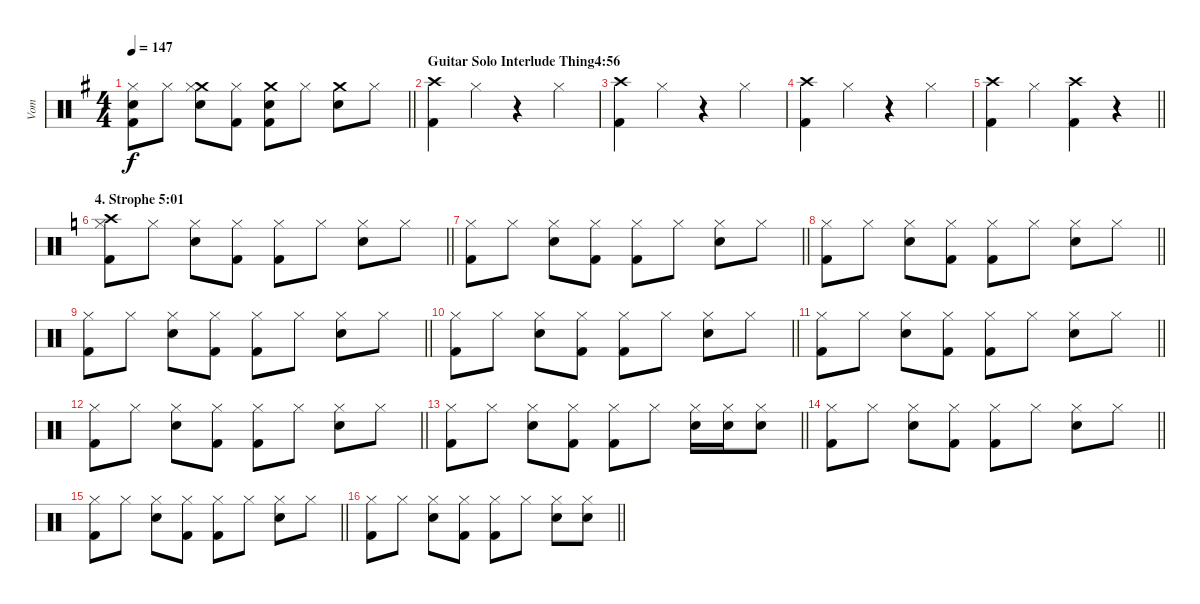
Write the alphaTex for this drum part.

\track ("Vom" "Vom") {instrument percussion}
\staff {score}
\articulation defaults
\ts (4 4)
\tempo 147
\clef neutral
\barLineRight lightlight
\ks g
("Hi-Hat (closed)" "Snare (hit) 2" "Kick (hit) 2").8{dy f} "Hi-Hat (closed)".8 ("Crash medium (hit)" "Hi-Hat (closed)" "Snare (hit) 2").8 ("Hi-Hat (closed)" "Kick (hit) 2").8 ("Crash medium (hit)" "Snare (hit) 2" "Kick (hit) 2").8 "Hi-Hat (closed)".8 ("Crash medium (hit)" "Snare (hit) 2").8 "Hi-Hat (closed)".8 |
\section ("" "Guitar Solo Interlude Thing4:56")
("Crash high (hit)" "Kick (hit) 2").4 "Hi-Hat (closed)".4 r.4 "Hi-Hat (closed)".4 |
("Crash high (hit)" "Kick (hit) 2").4 "Hi-Hat (closed)".4 r.4 "Hi-Hat (closed)".4 |
("Crash high (hit)" "Kick (hit) 2").4 "Hi-Hat (closed)".4 r.4 "Hi-Hat (closed)".4 |
\barLineRight lightlight
("Crash high (hit)" "Kick (hit) 2").4 "Hi-Hat (closed)".4 ("Crash high (hit)" "Kick (hit) 2").4 r.4 |
\section ("" "4. Strophe 5:01")
\barLineRight lightlight
\ks c
("Crash high (hit)" "Hi-Hat (closed)" "Kick (hit) 2").8 "Hi-Hat (closed)".8 ("Hi-Hat (closed)" "Snare (hit) 2").8 ("Hi-Hat (closed)" "Kick (hit) 2").8 ("Hi-Hat (closed)" "Kick (hit) 2").8 "Hi-Hat (closed)".8 ("Hi-Hat (closed)" "Snare (hit) 2").8 "Hi-Hat (closed)".8 |
\barLineRight lightlight
("Hi-Hat (closed)" "Kick (hit) 2").8 "Hi-Hat (closed)".8 ("Hi-Hat (closed)" "Snare (hit) 2").8 ("Hi-Hat (closed)" "Kick (hit) 2").8 ("Hi-Hat (closed)" "Kick (hit) 2").8 "Hi-Hat (closed)".8 ("Hi-Hat (closed)" "Snare (hit) 2").8 "Hi-Hat (closed)".8 |
\barLineRight lightlight
("Hi-Hat (closed)" "Kick (hit) 2").8 "Hi-Hat (closed)".8 ("Hi-Hat (closed)" "Snare (hit) 2").8 ("Hi-Hat (closed)" "Kick (hit) 2").8 ("Hi-Hat (closed)" "Kick (hit) 2").8 "Hi-Hat (closed)".8 ("Hi-Hat (closed)" "Snare (hit) 2").8 "Hi-Hat (closed)".8 |
\barLineRight lightlight
("Hi-Hat (closed)" "Kick (hit) 2").8 "Hi-Hat (closed)".8 ("Hi-Hat (closed)" "Snare (hit) 2").8 ("Hi-Hat (closed)" "Kick (hit) 2").8 ("Hi-Hat (closed)" "Kick (hit) 2").8 "Hi-Hat (closed)".8 ("Hi-Hat (closed)" "Snare (hit) 2").8 "Hi-Hat (closed)".8 |
\barLineRight lightlight
("Hi-Hat (closed)" "Kick (hit) 2").8 "Hi-Hat (closed)".8 ("Hi-Hat (closed)" "Snare (hit) 2").8 ("Hi-Hat (closed)" "Kick (hit) 2").8 ("Hi-Hat (closed)" "Kick (hit) 2").8 "Hi-Hat (closed)".8 ("Hi-Hat (closed)" "Snare (hit) 2").8 "Hi-Hat (closed)".8 |
\barLineRight lightlight
("Hi-Hat (closed)" "Kick (hit) 2").8 "Hi-Hat (closed)".8 ("Hi-Hat (closed)" "Snare (hit) 2").8 ("Hi-Hat (closed)" "Kick (hit) 2").8 ("Hi-Hat (closed)" "Kick (hit) 2").8 "Hi-Hat (closed)".8 ("Hi-Hat (closed)" "Snare (hit) 2").8 "Hi-Hat (closed)".8 |
\barLineRight lightlight
("Hi-Hat (closed)" "Kick (hit) 2").8 "Hi-Hat (closed)".8 ("Hi-Hat (closed)" "Snare (hit) 2").8 ("Hi-Hat (closed)" "Kick (hit) 2").8 ("Hi-Hat (closed)" "Kick (hit) 2").8 "Hi-Hat (closed)".8 ("Hi-Hat (closed)" "Snare (hit) 2").8 "Hi-Hat (closed)".8 |
\barLineRight lightlight
("Hi-Hat (closed)" "Kick (hit) 2").8 "Hi-Hat (closed)".8 ("Hi-Hat (closed)" "Snare (hit) 2").8 ("Hi-Hat (closed)" "Kick (hit) 2").8 ("Hi-Hat (closed)" "Kick (hit) 2").8 "Hi-Hat (closed)".8 ("Hi-Hat (closed)" "Snare (hit) 2").16 ("Hi-Hat (closed)" "Snare (hit) 2").16 ("Hi-Hat (closed)" "Snare (hit) 2").8 |
\barLineRight lightlight
("Hi-Hat (closed)" "Kick (hit) 2").8 "Hi-Hat (closed)".8 ("Hi-Hat (closed)" "Snare (hit) 2").8 ("Hi-Hat (closed)" "Kick (hit) 2").8 ("Hi-Hat (closed)" "Kick (hit) 2").8 "Hi-Hat (closed)".8 ("Hi-Hat (closed)" "Snare (hit) 2").8 "Hi-Hat (closed)".8 |
\barLineRight lightlight
("Hi-Hat (closed)" "Kick (hit) 2").8 "Hi-Hat (closed)".8 ("Hi-Hat (closed)" "Snare (hit) 2").8 ("Hi-Hat (closed)" "Kick (hit) 2").8 ("Hi-Hat (closed)" "Kick (hit) 2").8 "Hi-Hat (closed)".8 ("Hi-Hat (closed)" "Snare (hit) 2").8 "Hi-Hat (closed)".8 |
\barLineRight lightlight
("Hi-Hat (closed)" "Kick (hit) 2").8 "Hi-Hat (closed)".8 ("Hi-Hat (closed)" "Snare (hit) 2").8 ("Hi-Hat (closed)" "Kick (hit) 2").8 ("Hi-Hat (closed)" "Kick (hit) 2").8 "Hi-Hat (closed)".8 ("Hi-Hat (closed)" "Snare (hit) 2").8 ("Hi-Hat (closed)" "Snare (hit) 2").8
